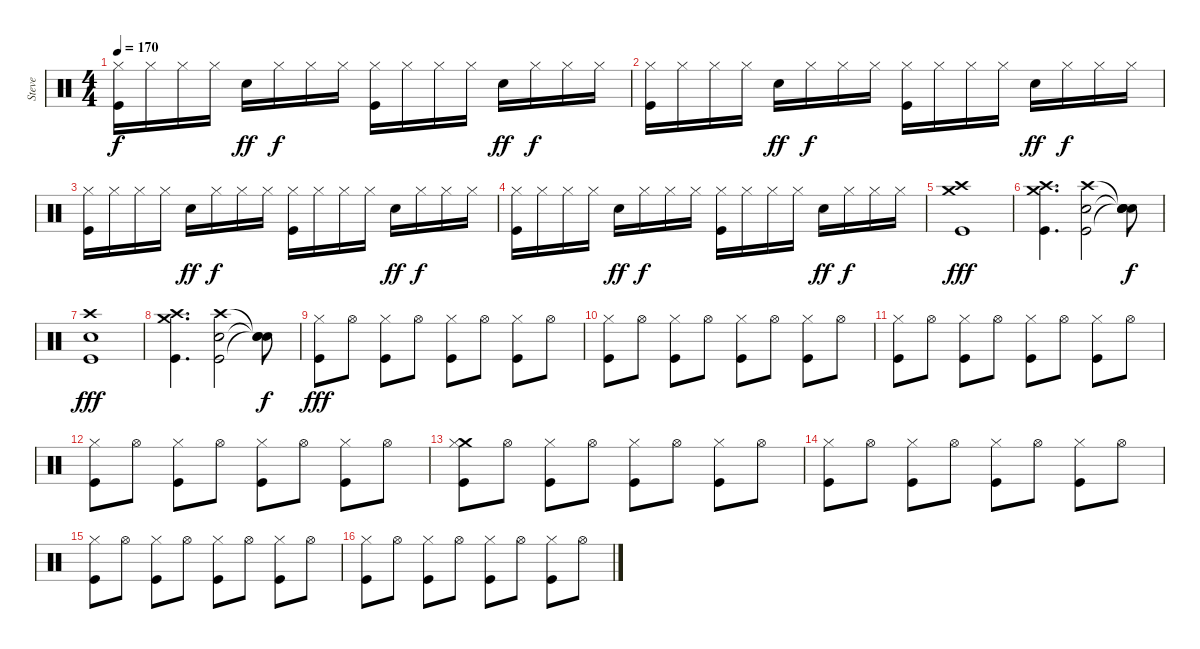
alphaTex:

\track ("Steve" "Steve") {instrument percussion}
\staff {score}
\articulation defaults
\ts (4 4)
\tempo 170
\clef neutral
\ks c
("Hi-Hat (closed)" "Kick (hit)").16{dy f} "Hi-Hat (closed)".16 "Hi-Hat (closed)".16 "Hi-Hat (closed)".16 "Electric Snare (hit)".16{dy ff} "Hi-Hat (closed)".16{dy f} "Hi-Hat (closed)".16 "Hi-Hat (closed)".16 ("Hi-Hat (closed)" "Kick (hit)").16 "Hi-Hat (closed)".16 "Hi-Hat (closed)".16 "Hi-Hat (closed)".16 "Electric Snare (hit)".16{dy ff} "Hi-Hat (closed)".16{dy f} "Hi-Hat (closed)".16 "Hi-Hat (closed)".16 |
("Hi-Hat (closed)" "Kick (hit)").16 "Hi-Hat (closed)".16 "Hi-Hat (closed)".16 "Hi-Hat (closed)".16 "Electric Snare (hit)".16{dy ff} "Hi-Hat (closed)".16{dy f} "Hi-Hat (closed)".16 "Hi-Hat (closed)".16 ("Hi-Hat (closed)" "Kick (hit)").16 "Hi-Hat (closed)".16 "Hi-Hat (closed)".16 "Hi-Hat (closed)".16 "Electric Snare (hit)".16{dy ff} "Hi-Hat (closed)".16{dy f} "Hi-Hat (closed)".16 "Hi-Hat (closed)".16 |
("Hi-Hat (closed)" "Kick (hit)").16 "Hi-Hat (closed)".16 "Hi-Hat (closed)".16 "Hi-Hat (closed)".16 "Electric Snare (hit)".16{dy ff} "Hi-Hat (closed)".16{dy f} "Hi-Hat (closed)".16 "Hi-Hat (closed)".16 ("Hi-Hat (closed)" "Kick (hit)").16 "Hi-Hat (closed)".16 "Hi-Hat (closed)".16 "Hi-Hat (closed)".16 "Electric Snare (hit)".16{dy ff} "Hi-Hat (closed)".16{dy f} "Hi-Hat (closed)".16 "Hi-Hat (closed)".16 |
("Hi-Hat (closed)" "Kick (hit)").16 "Hi-Hat (closed)".16 "Hi-Hat (closed)".16 "Hi-Hat (closed)".16 "Electric Snare (hit)".16{dy ff} "Hi-Hat (closed)".16{dy f} "Hi-Hat (closed)".16 "Hi-Hat (closed)".16 ("Hi-Hat (closed)" "Kick (hit)").16 "Hi-Hat (closed)".16 "Hi-Hat (closed)".16 "Hi-Hat (closed)".16 "Electric Snare (hit)".16{dy ff} "Hi-Hat (closed)".16{dy f} "Hi-Hat (closed)".16 "Hi-Hat (closed)".16 |
("Crash high (hit)" "Crash medium (hit)" "Kick (hit)").1{dy fff} |
("Crash high (hit)" "Crash medium (hit)" "Kick (hit)").4{d} ("Crash high (hit)" "Electric Snare (hit)" "Kick (hit)").2 ("Snare (hit)"{t} "Snare (hit)"{t} "Snare (hit)"{t} "Snare (hit)").8{dy f} |
("Crash high (hit)" "Electric Snare (hit)" "Kick (hit)").1{dy fff} |
("Crash high (hit)" "Crash medium (hit)" "Kick (hit)").4{d} ("Crash high (hit)" "Electric Snare (hit)" "Kick (hit)").2 ("Snare (hit)"{t} "Snare (hit)"{t} "Snare (hit)"{t}).8{dy f} |
("Hi-Hat (closed)" "Kick (hit)").8{dy fff} "Hi-Hat (open)".8 ("Hi-Hat (closed)" "Kick (hit)").8 "Hi-Hat (open)".8 ("Hi-Hat (closed)" "Kick (hit)").8 "Hi-Hat (open)".8 ("Hi-Hat (closed)" "Kick (hit)").8 "Hi-Hat (open)".8 |
("Hi-Hat (closed)" "Kick (hit)").8 "Hi-Hat (open)".8 ("Hi-Hat (closed)" "Kick (hit)").8 "Hi-Hat (open)".8 ("Hi-Hat (closed)" "Kick (hit)").8 "Hi-Hat (open)".8 ("Hi-Hat (closed)" "Kick (hit)").8 "Hi-Hat (open)".8 |
("Hi-Hat (closed)" "Kick (hit)").8 "Hi-Hat (open)".8 ("Hi-Hat (closed)" "Kick (hit)").8 "Hi-Hat (open)".8 ("Hi-Hat (closed)" "Kick (hit)").8 "Hi-Hat (open)".8 ("Hi-Hat (closed)" "Kick (hit)").8 "Hi-Hat (open)".8 |
("Hi-Hat (closed)" "Kick (hit)").8 "Hi-Hat (open)".8 ("Hi-Hat (closed)" "Kick (hit)").8 "Hi-Hat (open)".8 ("Hi-Hat (closed)" "Kick (hit)").8 "Hi-Hat (open)".8 ("Hi-Hat (closed)" "Kick (hit)").8 "Hi-Hat (open)".8 |
("Crash medium (hit)" "Hi-Hat (closed)" "Kick (hit)").8 "Hi-Hat (open)".8 ("Hi-Hat (closed)" "Kick (hit)").8 "Hi-Hat (open)".8 ("Hi-Hat (closed)" "Kick (hit)").8 "Hi-Hat (open)".8 ("Hi-Hat (closed)" "Kick (hit)").8 "Hi-Hat (open)".8 |
("Hi-Hat (closed)" "Kick (hit)").8 "Hi-Hat (open)".8 ("Hi-Hat (closed)" "Kick (hit)").8 "Hi-Hat (open)".8 ("Hi-Hat (closed)" "Kick (hit)").8 "Hi-Hat (open)".8 ("Hi-Hat (closed)" "Kick (hit)").8 "Hi-Hat (open)".8 |
("Hi-Hat (closed)" "Kick (hit)").8 "Hi-Hat (open)".8 ("Hi-Hat (closed)" "Kick (hit)").8 "Hi-Hat (open)".8 ("Hi-Hat (closed)" "Kick (hit)").8 "Hi-Hat (open)".8 ("Hi-Hat (closed)" "Kick (hit)").8 "Hi-Hat (open)".8 |
("Hi-Hat (closed)" "Kick (hit)").8 "Hi-Hat (open)".8 ("Hi-Hat (closed)" "Kick (hit)").8 "Hi-Hat (open)".8 ("Hi-Hat (closed)" "Kick (hit)").8 "Hi-Hat (open)".8 ("Hi-Hat (closed)" "Kick (hit)").8 "Hi-Hat (open)".8
